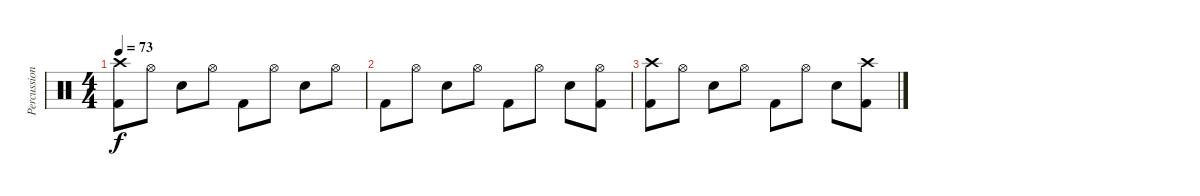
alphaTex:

\track ("Percussion" "Percussion") {instrument percussion}
\staff
\articulation defaults
\ts (4 4)
\tempo 73
\clef neutral
\ks c
("Crash high (hit)" "Kick (hit) 2").8{dy f} "Hi-Hat (open)".8 "Snare (hit) 2".8 "Hi-Hat (open)".8 "Kick (hit) 2".8 "Hi-Hat (open)".8 "Snare (hit) 2".8 "Hi-Hat (open)".8 |
"Kick (hit) 2".8 "Hi-Hat (open)".8 "Snare (hit) 2".8 "Hi-Hat (open)".8 "Kick (hit) 2".8 "Hi-Hat (open)".8 "Snare (hit) 2".8 ("Hi-Hat (open)" "Kick (hit) 2").8 |
("Crash high (hit)" "Kick (hit) 2").8 "Hi-Hat (open)".8 "Snare (hit) 2".8 "Hi-Hat (open)".8 "Kick (hit) 2".8 "Hi-Hat (open)".8 "Snare (hit) 2".8 ("Crash high (hit)" "Kick (hit) 2").8
